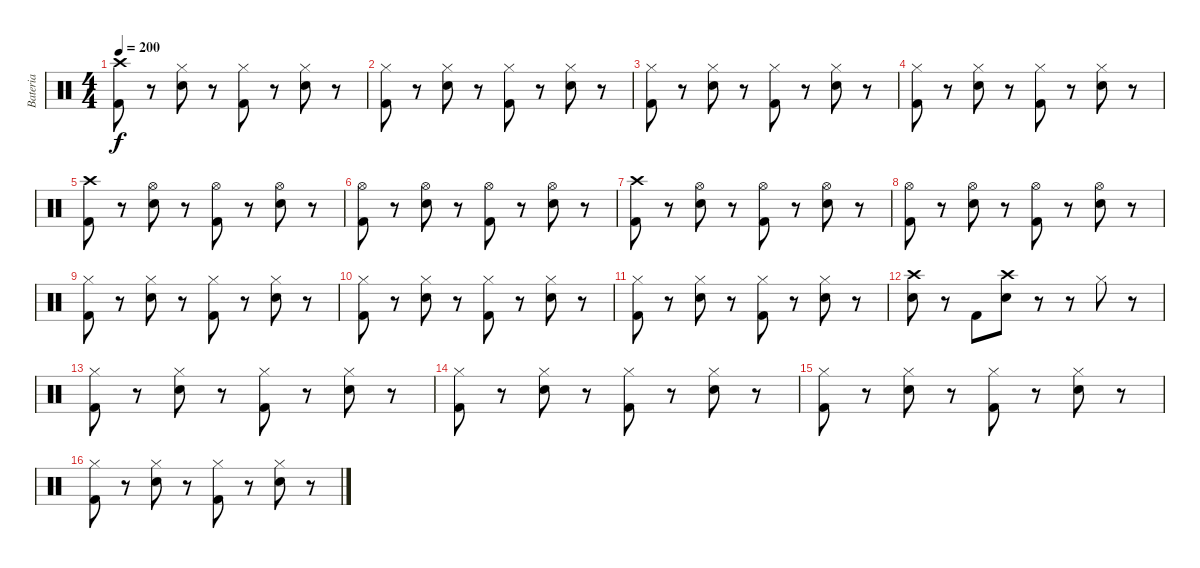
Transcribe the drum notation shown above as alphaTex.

\track ("Bateria" "Bateria") {instrument percussion}
\staff {score}
\articulation defaults
\ts (4 4)
\tempo 200
\clef neutral
\ks c
("Crash high (hit)" "Kick (hit) 2").8{dy f} r.8 ("Hi-Hat (closed)" "Snare (hit) 2").8 r.8 ("Hi-Hat (closed)" "Kick (hit) 2").8 r.8 ("Hi-Hat (closed)" "Snare (hit) 2").8 r.8 |
("Hi-Hat (closed)" "Kick (hit) 2").8 r.8 ("Hi-Hat (closed)" "Snare (hit) 2").8 r.8 ("Hi-Hat (closed)" "Kick (hit) 2").8 r.8 ("Hi-Hat (closed)" "Snare (hit) 2").8 r.8 |
("Hi-Hat (closed)" "Kick (hit) 2").8 r.8 ("Hi-Hat (closed)" "Snare (hit) 2").8 r.8 ("Hi-Hat (closed)" "Kick (hit) 2").8 r.8 ("Hi-Hat (closed)" "Snare (hit) 2").8 r.8 |
("Hi-Hat (closed)" "Kick (hit) 2").8 r.8 ("Hi-Hat (closed)" "Snare (hit) 2").8 r.8 ("Hi-Hat (closed)" "Kick (hit) 2").8 r.8 ("Hi-Hat (closed)" "Snare (hit) 2").8 r.8 |
("Crash high (hit)" "Kick (hit) 2").8 r.8 ("Hi-Hat (open)" "Snare (hit) 2").8 r.8 ("Hi-Hat (open)" "Kick (hit) 2").8 r.8 ("Hi-Hat (open)" "Snare (hit) 2").8 r.8 |
("Hi-Hat (open)" "Kick (hit) 2").8 r.8 ("Hi-Hat (open)" "Snare (hit) 2").8 r.8 ("Hi-Hat (open)" "Kick (hit) 2").8 r.8 ("Hi-Hat (open)" "Snare (hit) 2").8 r.8 |
("Crash high (hit)" "Kick (hit) 2").8 r.8 ("Hi-Hat (open)" "Snare (hit) 2").8 r.8 ("Hi-Hat (open)" "Kick (hit) 2").8 r.8 ("Hi-Hat (open)" "Snare (hit) 2").8 r.8 |
("Hi-Hat (open)" "Kick (hit) 2").8 r.8 ("Hi-Hat (open)" "Snare (hit) 2").8 r.8 ("Hi-Hat (open)" "Kick (hit) 2").8 r.8 ("Hi-Hat (open)" "Snare (hit) 2").8 r.8 |
("Hi-Hat (closed)" "Kick (hit) 2").8 r.8 ("Hi-Hat (closed)" "Snare (hit) 2").8 r.8 ("Hi-Hat (closed)" "Kick (hit) 2").8 r.8 ("Hi-Hat (closed)" "Snare (hit) 2").8 r.8 |
("Hi-Hat (closed)" "Kick (hit) 2").8 r.8 ("Hi-Hat (closed)" "Snare (hit) 2").8 r.8 ("Hi-Hat (closed)" "Kick (hit) 2").8 r.8 ("Hi-Hat (closed)" "Snare (hit) 2").8 r.8 |
("Hi-Hat (closed)" "Kick (hit) 2").8 r.8 ("Hi-Hat (closed)" "Snare (hit) 2").8 r.8 ("Hi-Hat (closed)" "Kick (hit) 2").8 r.8 ("Hi-Hat (closed)" "Snare (hit) 2").8 r.8 |
("Crash high (hit)" "Snare (hit) 2").8 r.8 "Kick (hit) 2".8 ("Crash high (hit)" "Snare (hit) 2").8 r.8 r.8 "Hi-Hat (closed)".8 r.8 |
("Hi-Hat (closed)" "Kick (hit) 2").8 r.8 ("Hi-Hat (closed)" "Snare (hit) 2").8 r.8 ("Hi-Hat (closed)" "Kick (hit) 2").8 r.8 ("Hi-Hat (closed)" "Snare (hit) 2").8 r.8 |
("Hi-Hat (closed)" "Kick (hit) 2").8 r.8 ("Hi-Hat (closed)" "Snare (hit) 2").8 r.8 ("Hi-Hat (closed)" "Kick (hit) 2").8 r.8 ("Hi-Hat (closed)" "Snare (hit) 2").8 r.8 |
("Hi-Hat (closed)" "Kick (hit) 2").8 r.8 ("Hi-Hat (closed)" "Snare (hit) 2").8 r.8 ("Hi-Hat (closed)" "Kick (hit) 2").8 r.8 ("Hi-Hat (closed)" "Snare (hit) 2").8 r.8 |
("Hi-Hat (closed)" "Kick (hit) 2").8 r.8 ("Hi-Hat (closed)" "Snare (hit) 2").8 r.8 ("Hi-Hat (closed)" "Kick (hit) 2").8 r.8 ("Hi-Hat (closed)" "Snare (hit) 2").8 r.8
